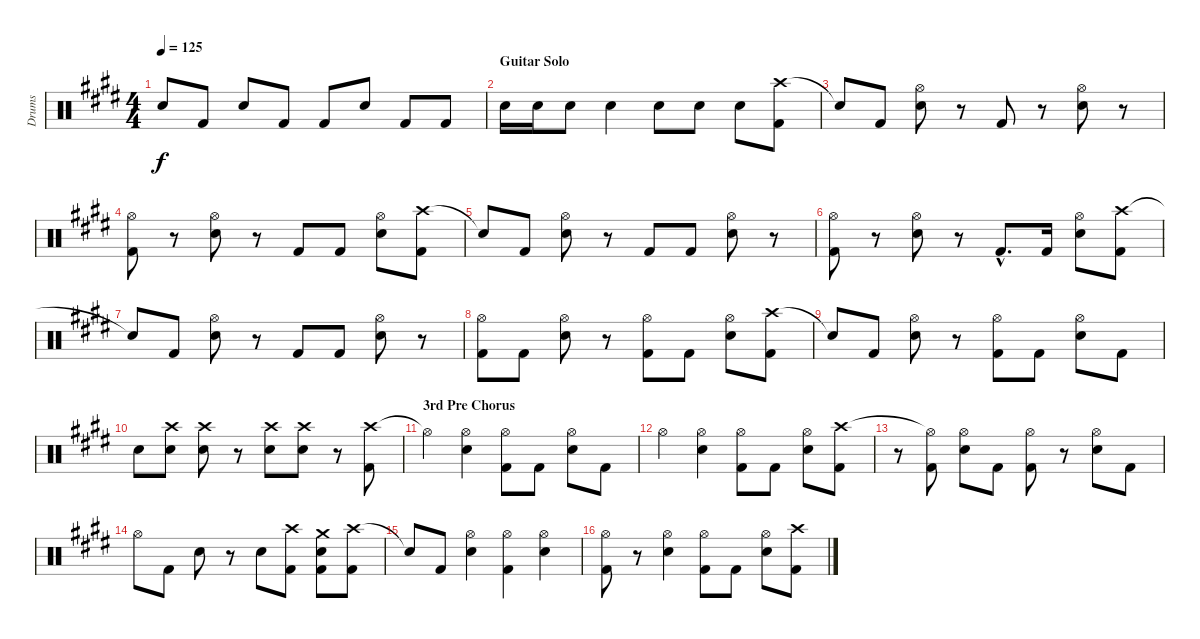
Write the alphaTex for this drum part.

\track ("Drums" "Drums") {instrument percussion}
\staff {score}
\articulation defaults
\ts (4 4)
\tempo 125
\clef neutral
\ks e "Snare (hit)"{t}.8{dy f} "Kick (hit) 2".8 "Electric Snare (hit)".8 "Kick (hit) 2".8 "Kick (hit) 2".8 "Electric Snare (hit)".8 "Kick (hit) 2".8 "Kick (hit) 2".8
|
\section ("" "Guitar Solo")
"Electric Snare (hit)".16 "Electric Snare (hit)".16 "Electric Snare (hit)".8 "Electric Snare (hit)".4 "Electric Snare (hit)".8 "Electric Snare (hit)".8 "Electric Snare (hit)".8 ("Crash high (hit)" "Kick (hit) 2").8 |
"Snare (hit)"{t}.8 "Kick (hit) 2".8 ("Hi-Hat (open)" "Electric Snare (hit)").8 r.8 "Kick (hit) 2".8 r.8 ("Hi-Hat (open)" "Electric Snare (hit)").8 r.8 |
("Hi-Hat (open)" "Kick (hit) 2").8 r.8 ("Hi-Hat (open)" "Electric Snare (hit)").8 r.8 "Kick (hit) 2".8 "Kick (hit) 2".8 ("Hi-Hat (open)" "Electric Snare (hit)").8 ("Crash high (hit)" "Kick (hit) 2").8 |
"Snare (hit)"{t}.8 "Kick (hit) 2".8 ("Hi-Hat (open)" "Electric Snare (hit)").8 r.8 "Kick (hit) 2".8 "Kick (hit) 2".8 ("Hi-Hat (open)" "Electric Snare (hit)").8 r.8 |
("Hi-Hat (open)" "Kick (hit) 2").8 r.8 ("Hi-Hat (open)" "Electric Snare (hit)").8 r.8 "Kick (hit) 2"{hac}.8{d} "Kick (hit) 2".16 ("Hi-Hat (open)" "Electric Snare (hit)").8 ("Crash high (hit)" "Kick (hit) 2").8 |
"Snare (hit)"{t}.8 "Kick (hit) 2".8 ("Hi-Hat (open)" "Electric Snare (hit)").8 r.8 "Kick (hit) 2".8 "Kick (hit) 2".8 ("Hi-Hat (open)" "Electric Snare (hit)").8 r.8 |
("Hi-Hat (open)" "Kick (hit) 2").8 "Kick (hit) 2".8 ("Hi-Hat (open)" "Electric Snare (hit)").8 r.8 ("Hi-Hat (open)" "Kick (hit) 2").8 "Kick (hit) 2".8 ("Hi-Hat (open)" "Electric Snare (hit)").8 ("Crash high (hit)" "Kick (hit) 2").8 |
"Snare (hit)"{t}.8 "Kick (hit) 2".8 ("Hi-Hat (open)" "Electric Snare (hit)").8 r.8 ("Hi-Hat (open)" "Kick (hit) 2").8 "Kick (hit) 2".8 ("Hi-Hat (open)" "Electric Snare (hit)").8 "Kick (hit) 2".8 |
"Electric Snare (hit)".8 ("Crash high (hit)" "Electric Snare (hit)").8 ("Crash high (hit)" "Electric Snare (hit)").8 r.8 ("Crash high (hit)" "Electric Snare (hit)").8 ("Crash high (hit)" "Electric Snare (hit)").8 r.8 ("Crash high (hit)" "Kick (hit) 2").8 |
\section ("" "3rd Pre Chorus")
"Hi-Hat (open)"{t}.4 ("Hi-Hat (open)" "Electric Snare (hit)").4 ("Hi-Hat (open)" "Kick (hit) 2").8 "Kick (hit) 2".8 ("Hi-Hat (open)" "Electric Snare (hit)").8 "Kick (hit) 2".8 |
"Hi-Hat (open)".4 ("Hi-Hat (open)" "Electric Snare (hit)").4 ("Hi-Hat (open)" "Kick (hit) 2").8 "Kick (hit) 2".8 ("Hi-Hat (open)" "Electric Snare (hit)").8 ("Crash high (hit)" "Kick (hit) 2").8 |
r.8 ("Hi-Hat (open)"{t} "Kick (hit) 2").8 ("Hi-Hat (open)" "Electric Snare (hit)").8 "Kick (hit) 2".8 ("Hi-Hat (open)" "Kick (hit) 2").8 r.8 ("Hi-Hat (open)" "Electric Snare (hit)").8 "Kick (hit) 2".8 |
"Hi-Hat (open)".8 "Kick (hit) 2".8 "Electric Snare (hit)".8 r.8 "Electric Snare (hit)".8 ("Crash high (hit)" "Kick (hit) 2").8 ("Crash medium (hit)" "Electric Snare (hit)" "Kick (hit) 2").8 ("Crash high (hit)" "Kick (hit) 2").8 |
"Snare (hit)"{t}.8 "Kick (hit) 2".8 ("Hi-Hat (open)" "Electric Snare (hit)").4 ("Hi-Hat (open)" "Kick (hit) 2").4 ("Hi-Hat (open)" "Electric Snare (hit)").4 |
("Hi-Hat (open)" "Kick (hit) 2").8 r.8 ("Hi-Hat (open)" "Electric Snare (hit)").4 ("Hi-Hat (open)" "Kick (hit) 2").8 "Kick (hit) 2".8 ("Hi-Hat (open)" "Electric Snare (hit)").8 ("Crash high (hit)" "Kick (hit) 2").8
